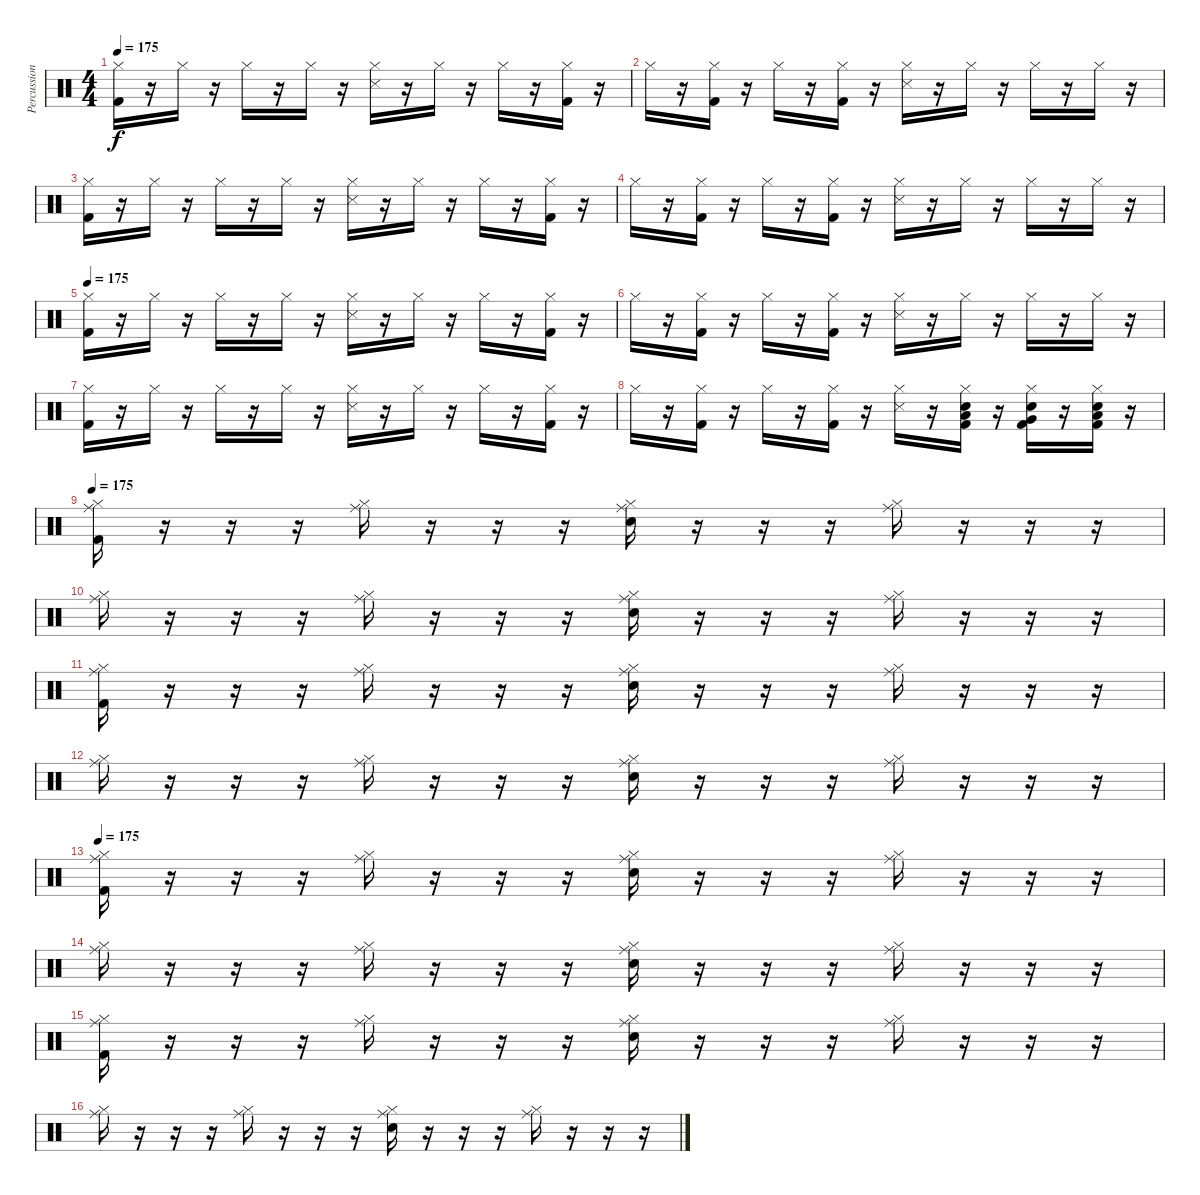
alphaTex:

\track ("Percussion" "Percussion") {instrument percussion}
\staff {score}
\articulation defaults
\ts (4 4)
\tempo 175
\clef neutral
\ks c
("Hi-Hat (closed)" "Kick (hit) 2").16{dy f} r.16 "Hi-Hat (closed)".16 r.16 "Hi-Hat (closed)".16 r.16 "Hi-Hat (closed)".16 r.16 ("Hi-Hat (closed)" "Metronome (hit)").16 r.16 "Hi-Hat (closed)".16 r.16 "Hi-Hat (closed)".16 r.16 ("Hi-Hat (closed)" "Kick (hit) 2").16 r.16 |
"Hi-Hat (closed)".16 r.16 ("Hi-Hat (closed)" "Kick (hit) 2").16 r.16 "Hi-Hat (closed)".16 r.16 ("Hi-Hat (closed)" "Kick (hit) 2").16 r.16 ("Hi-Hat (closed)" "Metronome (hit)").16 r.16 "Hi-Hat (closed)".16 r.16 "Hi-Hat (closed)".16 r.16 "Hi-Hat (closed)".16 r.16 |
("Hi-Hat (closed)" "Kick (hit) 2").16 r.16 "Hi-Hat (closed)".16 r.16 "Hi-Hat (closed)".16 r.16 "Hi-Hat (closed)".16 r.16 ("Hi-Hat (closed)" "Metronome (hit)").16 r.16 "Hi-Hat (closed)".16 r.16 "Hi-Hat (closed)".16 r.16 ("Hi-Hat (closed)" "Kick (hit) 2").16 r.16 |
"Hi-Hat (closed)".16 r.16 ("Hi-Hat (closed)" "Kick (hit) 2").16 r.16 "Hi-Hat (closed)".16 r.16 ("Hi-Hat (closed)" "Kick (hit) 2").16 r.16 ("Hi-Hat (closed)" "Metronome (hit)").16 r.16 "Hi-Hat (closed)".16 r.16 "Hi-Hat (closed)".16 r.16 "Hi-Hat (closed)".16 r.16 |
\tempo 175
("Hi-Hat (closed)" "Kick (hit) 2").16 r.16 "Hi-Hat (closed)".16 r.16 "Hi-Hat (closed)".16 r.16 "Hi-Hat (closed)".16 r.16 ("Hi-Hat (closed)" "Metronome (hit)").16 r.16 "Hi-Hat (closed)".16 r.16 "Hi-Hat (closed)".16 r.16 ("Hi-Hat (closed)" "Kick (hit) 2").16 r.16 |
"Hi-Hat (closed)".16 r.16 ("Hi-Hat (closed)" "Kick (hit) 2").16 r.16 "Hi-Hat (closed)".16 r.16 ("Hi-Hat (closed)" "Kick (hit) 2").16 r.16 ("Hi-Hat (closed)" "Metronome (hit)").16 r.16 "Hi-Hat (closed)".16 r.16 "Hi-Hat (closed)".16 r.16 "Hi-Hat (closed)".16 r.16 |
("Hi-Hat (closed)" "Kick (hit) 2").16 r.16 "Hi-Hat (closed)".16 r.16 "Hi-Hat (closed)".16 r.16 "Hi-Hat (closed)".16 r.16 ("Hi-Hat (closed)" "Metronome (hit)").16 r.16 "Hi-Hat (closed)".16 r.16 "Hi-Hat (closed)".16 r.16 ("Hi-Hat (closed)" "Kick (hit) 2").16 r.16 |
"Hi-Hat (closed)".16 r.16 ("Hi-Hat (closed)" "Kick (hit) 2").16 r.16 "Hi-Hat (closed)".16 r.16 ("Hi-Hat (closed)" "Kick (hit) 2").16 r.16 ("Hi-Hat (closed)" "Metronome (hit)").16 r.16 ("Kick (hit) 2" "Hi-Hat (closed)" "Low Tom (hit)" "Snare (hit) 2").16 r.16 ("Kick (hit) 2" "Hi-Hat (closed)" "Very Low Tom (hit)" "Snare (hit) 2").16 r.16 ("Kick (hit) 2" "Hi-Hat (closed)" "Low Floor Tom (hit)" "Snare (hit) 2").16 r.16 |
\tempo 175
("Ride (middle)" "Hi-Hat (closed)" "Kick (hit) 2").16 r.16 r.16 r.16 ("Ride (middle)" "Hi-Hat (closed)").16 r.16 r.16 r.16 ("Ride (middle)" "Hi-Hat (closed)" "Snare (hit) 2").16 r.16 r.16 r.16 ("Ride (middle)" "Hi-Hat (closed)").16 r.16 r.16 r.16 |
("Ride (middle)" "Hi-Hat (closed)").16 r.16 r.16 r.16 ("Ride (middle)" "Hi-Hat (closed)").16 r.16 r.16 r.16 ("Ride (middle)" "Hi-Hat (closed)" "Snare (hit) 2").16 r.16 r.16 r.16 ("Ride (middle)" "Hi-Hat (closed)").16 r.16 r.16 r.16 |
("Ride (middle)" "Hi-Hat (closed)" "Kick (hit) 2").16 r.16 r.16 r.16 ("Ride (middle)" "Hi-Hat (closed)").16 r.16 r.16 r.16 ("Ride (middle)" "Hi-Hat (closed)" "Snare (hit) 2").16 r.16 r.16 r.16 ("Ride (middle)" "Hi-Hat (closed)").16 r.16 r.16 r.16 |
("Ride (middle)" "Hi-Hat (closed)").16 r.16 r.16 r.16 ("Ride (middle)" "Hi-Hat (closed)").16 r.16 r.16 r.16 ("Ride (middle)" "Hi-Hat (closed)" "Snare (hit) 2").16 r.16 r.16 r.16 ("Ride (middle)" "Hi-Hat (closed)").16 r.16 r.16 r.16 |
\tempo 175
("Ride (middle)" "Hi-Hat (closed)" "Kick (hit) 2").16 r.16 r.16 r.16 ("Ride (middle)" "Hi-Hat (closed)").16 r.16 r.16 r.16 ("Ride (middle)" "Hi-Hat (closed)" "Snare (hit) 2").16 r.16 r.16 r.16 ("Ride (middle)" "Hi-Hat (closed)").16 r.16 r.16 r.16 |
("Ride (middle)" "Hi-Hat (closed)").16 r.16 r.16 r.16 ("Ride (middle)" "Hi-Hat (closed)").16 r.16 r.16 r.16 ("Ride (middle)" "Hi-Hat (closed)" "Snare (hit) 2").16 r.16 r.16 r.16 ("Ride (middle)" "Hi-Hat (closed)").16 r.16 r.16 r.16 |
("Ride (middle)" "Hi-Hat (closed)" "Kick (hit) 2").16 r.16 r.16 r.16 ("Ride (middle)" "Hi-Hat (closed)").16 r.16 r.16 r.16 ("Ride (middle)" "Hi-Hat (closed)" "Snare (hit) 2").16 r.16 r.16 r.16 ("Ride (middle)" "Hi-Hat (closed)").16 r.16 r.16 r.16 |
("Ride (middle)" "Hi-Hat (closed)").16 r.16 r.16 r.16 ("Ride (middle)" "Hi-Hat (closed)").16 r.16 r.16 r.16 ("Ride (middle)" "Hi-Hat (closed)" "Snare (hit) 2").16 r.16 r.16 r.16 ("Ride (middle)" "Hi-Hat (closed)").16 r.16 r.16 r.16
